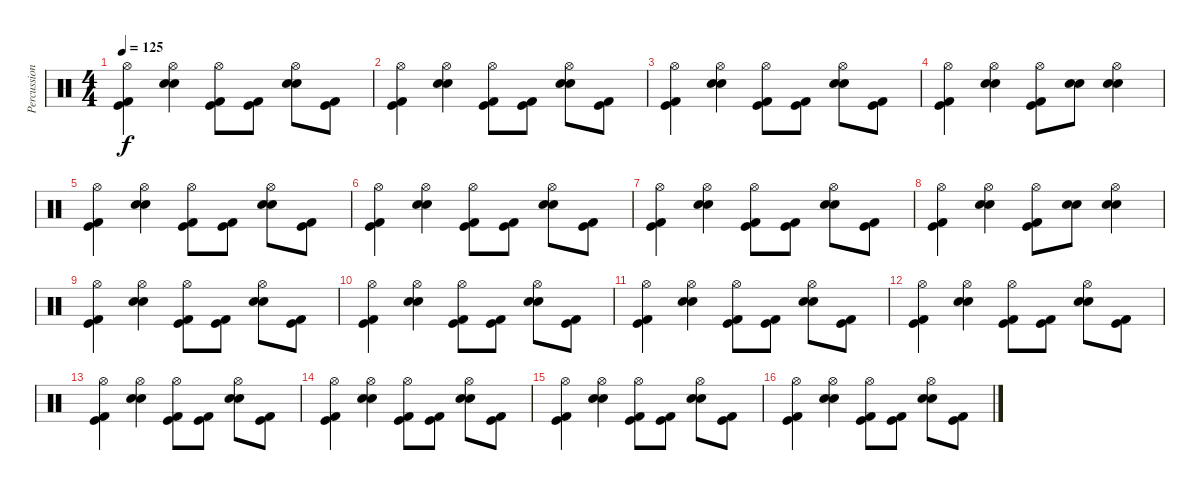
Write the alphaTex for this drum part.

\track ("Percussions" "Percussion") {instrument percussion}
\staff {score}
\articulation defaults
\ts (4 4)
\tempo 125
\clef neutral
\ks c
("Kick (hit)" "Kick (hit) 2" "Hi-Hat (open)").4{dy f} ("Snare (hit) 2" "Snare (hit) 2" "Hi-Hat (open)").4 ("Kick (hit)" "Kick (hit) 2" "Hi-Hat (open)").8 ("Kick (hit)" "Kick (hit) 2").8 ("Snare (hit) 2" "Snare (hit) 2" "Hi-Hat (open)").8 ("Kick (hit)" "Kick (hit) 2").8 |
("Kick (hit)" "Kick (hit) 2" "Hi-Hat (open)").4 ("Snare (hit) 2" "Snare (hit) 2" "Hi-Hat (open)").4 ("Kick (hit)" "Kick (hit) 2" "Hi-Hat (open)").8 ("Kick (hit)" "Kick (hit) 2").8 ("Snare (hit) 2" "Snare (hit) 2" "Hi-Hat (open)").8 ("Kick (hit)" "Kick (hit) 2").8 |
("Kick (hit)" "Kick (hit) 2" "Hi-Hat (open)").4 ("Snare (hit) 2" "Snare (hit) 2" "Hi-Hat (open)").4 ("Kick (hit)" "Kick (hit) 2" "Hi-Hat (open)").8 ("Kick (hit)" "Kick (hit) 2").8 ("Snare (hit) 2" "Snare (hit) 2" "Hi-Hat (open)").8 ("Kick (hit)" "Kick (hit) 2").8 |
("Kick (hit)" "Kick (hit) 2" "Hi-Hat (open)").4 ("Snare (hit) 2" "Snare (hit) 2" "Hi-Hat (open)").4 ("Kick (hit)" "Kick (hit) 2" "Hi-Hat (open)").8 ("Snare (hit) 2" "Snare (hit) 2").8 ("Snare (hit) 2" "Snare (hit) 2" "Hi-Hat (open)").4 |
("Kick (hit)" "Kick (hit) 2" "Hi-Hat (open)").4 ("Snare (hit) 2" "Snare (hit) 2" "Hi-Hat (open)").4 ("Kick (hit)" "Kick (hit) 2" "Hi-Hat (open)").8 ("Kick (hit)" "Kick (hit) 2").8 ("Snare (hit) 2" "Snare (hit) 2" "Hi-Hat (open)").8 ("Kick (hit)" "Kick (hit) 2").8 |
("Kick (hit)" "Kick (hit) 2" "Hi-Hat (open)").4 ("Snare (hit) 2" "Snare (hit) 2" "Hi-Hat (open)").4 ("Kick (hit)" "Kick (hit) 2" "Hi-Hat (open)").8 ("Kick (hit)" "Kick (hit) 2").8 ("Snare (hit) 2" "Snare (hit) 2" "Hi-Hat (open)").8 ("Kick (hit)" "Kick (hit) 2").8 |
("Kick (hit)" "Kick (hit) 2" "Hi-Hat (open)").4 ("Snare (hit) 2" "Snare (hit) 2" "Hi-Hat (open)").4 ("Kick (hit)" "Kick (hit) 2" "Hi-Hat (open)").8 ("Kick (hit)" "Kick (hit) 2").8 ("Snare (hit) 2" "Snare (hit) 2" "Hi-Hat (open)").8 ("Kick (hit)" "Kick (hit) 2").8 |
("Kick (hit)" "Kick (hit) 2" "Hi-Hat (open)").4 ("Snare (hit) 2" "Snare (hit) 2" "Hi-Hat (open)").4 ("Kick (hit)" "Kick (hit) 2" "Hi-Hat (open)").8 ("Snare (hit) 2" "Snare (hit) 2").8 ("Snare (hit) 2" "Snare (hit) 2" "Hi-Hat (open)").4 |
("Kick (hit)" "Kick (hit) 2" "Hi-Hat (open)").4 ("Snare (hit) 2" "Snare (hit) 2" "Hi-Hat (open)").4 ("Kick (hit)" "Kick (hit) 2" "Hi-Hat (open)").8 ("Kick (hit)" "Kick (hit) 2").8 ("Snare (hit) 2" "Snare (hit) 2" "Hi-Hat (open)").8 ("Kick (hit)" "Kick (hit) 2").8 |
("Kick (hit)" "Kick (hit) 2" "Hi-Hat (open)").4 ("Snare (hit) 2" "Snare (hit) 2" "Hi-Hat (open)").4 ("Kick (hit)" "Kick (hit) 2" "Hi-Hat (open)").8 ("Kick (hit)" "Kick (hit) 2").8 ("Snare (hit) 2" "Snare (hit) 2" "Hi-Hat (open)").8 ("Kick (hit)" "Kick (hit) 2").8 |
("Kick (hit)" "Kick (hit) 2" "Hi-Hat (open)").4 ("Snare (hit) 2" "Snare (hit) 2" "Hi-Hat (open)").4 ("Kick (hit)" "Kick (hit) 2" "Hi-Hat (open)").8 ("Kick (hit)" "Kick (hit) 2").8 ("Snare (hit) 2" "Snare (hit) 2" "Hi-Hat (open)").8 ("Kick (hit)" "Kick (hit) 2").8 |
("Kick (hit)" "Kick (hit) 2" "Hi-Hat (open)").4 ("Snare (hit) 2" "Snare (hit) 2" "Hi-Hat (open)").4 ("Kick (hit)" "Kick (hit) 2" "Hi-Hat (open)").8 ("Kick (hit)" "Kick (hit) 2").8 ("Snare (hit) 2" "Snare (hit) 2" "Hi-Hat (open)").8 ("Kick (hit)" "Kick (hit) 2").8 |
("Kick (hit)" "Kick (hit) 2" "Hi-Hat (open)").4 ("Snare (hit) 2" "Snare (hit) 2" "Hi-Hat (open)").4 ("Kick (hit)" "Kick (hit) 2" "Hi-Hat (open)").8 ("Kick (hit)" "Kick (hit) 2").8 ("Snare (hit) 2" "Snare (hit) 2" "Hi-Hat (open)").8 ("Kick (hit)" "Kick (hit) 2").8 |
("Kick (hit)" "Kick (hit) 2" "Hi-Hat (open)").4 ("Snare (hit) 2" "Snare (hit) 2" "Hi-Hat (open)").4 ("Kick (hit)" "Kick (hit) 2" "Hi-Hat (open)").8 ("Kick (hit)" "Kick (hit) 2").8 ("Snare (hit) 2" "Snare (hit) 2" "Hi-Hat (open)").8 ("Kick (hit)" "Kick (hit) 2").8 |
("Kick (hit)" "Kick (hit) 2" "Hi-Hat (open)").4 ("Snare (hit) 2" "Snare (hit) 2" "Hi-Hat (open)").4 ("Kick (hit)" "Kick (hit) 2" "Hi-Hat (open)").8 ("Kick (hit)" "Kick (hit) 2").8 ("Snare (hit) 2" "Snare (hit) 2" "Hi-Hat (open)").8 ("Kick (hit)" "Kick (hit) 2").8 |
("Kick (hit)" "Kick (hit) 2" "Hi-Hat (open)").4 ("Snare (hit) 2" "Snare (hit) 2" "Hi-Hat (open)").4 ("Kick (hit)" "Kick (hit) 2" "Hi-Hat (open)").8 ("Kick (hit)" "Kick (hit) 2").8 ("Snare (hit) 2" "Snare (hit) 2" "Hi-Hat (open)").8 ("Kick (hit)" "Kick (hit) 2").8
